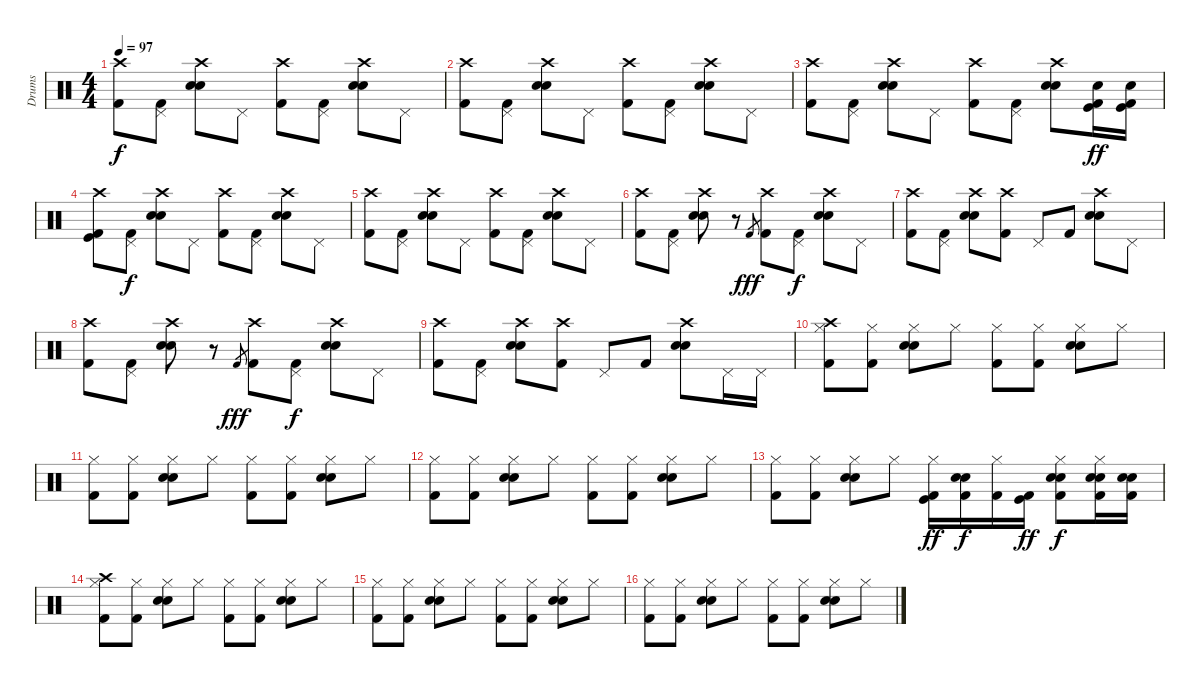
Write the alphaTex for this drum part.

\track ("Drums         Brian Young" "Drums     ") {instrument percussion}
\staff {score}
\articulation defaults
\ts (4 4)
\tempo 97
\clef neutral
\ks c
("Crash high (hit)" "Kick (hit) 2").8{dy f} ("Pedal Hi-Hat (hit)" "Kick (hit) 2").8 ("Crash high (hit)" "Electric Snare (hit)" "Snare (hit) 2").8 "Pedal Hi-Hat (hit)".8 ("Crash high (hit)" "Kick (hit) 2").8 ("Pedal Hi-Hat (hit)" "Kick (hit) 2").8 ("Crash high (hit)" "Electric Snare (hit)" "Snare (hit) 2").8 "Pedal Hi-Hat (hit)".8 |
("Crash high (hit)" "Kick (hit) 2").8 ("Pedal Hi-Hat (hit)" "Kick (hit) 2").8 ("Crash high (hit)" "Electric Snare (hit)" "Snare (hit) 2").8 "Pedal Hi-Hat (hit)".8 ("Crash high (hit)" "Kick (hit) 2").8 ("Pedal Hi-Hat (hit)" "Kick (hit) 2").8 ("Crash high (hit)" "Electric Snare (hit)" "Snare (hit) 2").8 "Pedal Hi-Hat (hit)".8 |
("Crash high (hit)" "Kick (hit) 2").8 ("Pedal Hi-Hat (hit)" "Kick (hit) 2").8 ("Crash high (hit)" "Electric Snare (hit)" "Snare (hit) 2").8 "Pedal Hi-Hat (hit)".8 ("Crash high (hit)" "Kick (hit) 2").8 ("Pedal Hi-Hat (hit)" "Kick (hit) 2").8 ("Crash high (hit)" "Electric Snare (hit)" "Snare (hit) 2").8 ("Snare (hit) 2" "Kick (hit)" "Kick (hit) 2").16{dy ff} ("Snare (hit) 2" "Kick (hit)" "Kick (hit) 2").16 |
("Crash high (hit)" "Kick (hit)" "Kick (hit) 2").8 ("Pedal Hi-Hat (hit)" "Kick (hit) 2").8{dy f} ("Crash high (hit)" "Electric Snare (hit)" "Snare (hit) 2").8 "Pedal Hi-Hat (hit)".8 ("Crash high (hit)" "Kick (hit) 2").8 ("Pedal Hi-Hat (hit)" "Kick (hit) 2").8 ("Crash high (hit)" "Electric Snare (hit)" "Snare (hit) 2").8 "Pedal Hi-Hat (hit)".8 |
("Crash high (hit)" "Kick (hit) 2").8 ("Pedal Hi-Hat (hit)" "Kick (hit) 2").8 ("Crash high (hit)" "Electric Snare (hit)" "Snare (hit) 2").8 "Pedal Hi-Hat (hit)".8 ("Crash high (hit)" "Kick (hit) 2").8 ("Pedal Hi-Hat (hit)" "Kick (hit) 2").8 ("Crash high (hit)" "Electric Snare (hit)" "Snare (hit) 2").8 "Pedal Hi-Hat (hit)".8 |
("Crash high (hit)" "Kick (hit) 2").8 ("Pedal Hi-Hat (hit)" "Kick (hit) 2").8 ("Crash high (hit)" "Electric Snare (hit)" "Snare (hit) 2").8 r.8 "Kick (hit) 2".8{gr dy fff} ("Crash high (hit)" "Kick (hit) 2").8 ("Pedal Hi-Hat (hit)" "Kick (hit) 2").8{dy f} ("Crash high (hit)" "Electric Snare (hit)" "Snare (hit) 2").8 "Pedal Hi-Hat (hit)".8 |
("Crash high (hit)" "Kick (hit) 2").8 ("Pedal Hi-Hat (hit)" "Kick (hit) 2").8 ("Crash high (hit)" "Electric Snare (hit)" "Snare (hit) 2").8 ("Crash high (hit)" "Kick (hit) 2").8 "Pedal Hi-Hat (hit)".8 "Kick (hit) 2".8 ("Crash high (hit)" "Electric Snare (hit)" "Snare (hit) 2").8 "Pedal Hi-Hat (hit)".8 |
("Crash high (hit)" "Kick (hit) 2").8 ("Pedal Hi-Hat (hit)" "Kick (hit) 2").8 ("Crash high (hit)" "Electric Snare (hit)" "Snare (hit) 2").8 r.8 "Kick (hit) 2".8{gr dy fff} ("Crash high (hit)" "Kick (hit) 2").8 ("Pedal Hi-Hat (hit)" "Kick (hit) 2").8{dy f} ("Crash high (hit)" "Electric Snare (hit)" "Snare (hit) 2").8 "Pedal Hi-Hat (hit)".8 |
("Crash high (hit)" "Kick (hit) 2").8 ("Pedal Hi-Hat (hit)" "Kick (hit) 2").8 ("Crash high (hit)" "Electric Snare (hit)" "Snare (hit) 2").8 ("Crash high (hit)" "Kick (hit) 2").8 "Pedal Hi-Hat (hit)".8 "Kick (hit) 2".8 ("Crash high (hit)" "Electric Snare (hit)" "Snare (hit) 2").8 "Pedal Hi-Hat (hit)".16 "Pedal Hi-Hat (hit)".16 |
("Hi-Hat (closed)" "Crash high (hit)" "Kick (hit) 2").8 ("Hi-Hat (closed)" "Kick (hit) 2").8 ("Hi-Hat (closed)" "Electric Snare (hit)" "Snare (hit) 2").8 "Hi-Hat (closed)".8 ("Hi-Hat (closed)" "Kick (hit) 2").8 ("Hi-Hat (closed)" "Kick (hit) 2").8 ("Hi-Hat (closed)" "Electric Snare (hit)" "Snare (hit) 2").8 "Hi-Hat (closed)".8 |
("Hi-Hat (closed)" "Kick (hit) 2").8 ("Hi-Hat (closed)" "Kick (hit) 2").8 ("Hi-Hat (closed)" "Electric Snare (hit)" "Snare (hit) 2").8 "Hi-Hat (closed)".8 ("Hi-Hat (closed)" "Kick (hit) 2").8 ("Hi-Hat (closed)" "Kick (hit) 2").8 ("Hi-Hat (closed)" "Electric Snare (hit)" "Snare (hit) 2").8 "Hi-Hat (closed)".8 |
("Hi-Hat (closed)" "Kick (hit) 2").8 ("Hi-Hat (closed)" "Kick (hit) 2").8 ("Hi-Hat (closed)" "Electric Snare (hit)" "Snare (hit) 2").8 "Hi-Hat (closed)".8 ("Hi-Hat (closed)" "Kick (hit) 2").8 ("Hi-Hat (closed)" "Kick (hit) 2").8 ("Hi-Hat (closed)" "Electric Snare (hit)" "Snare (hit) 2").8 "Hi-Hat (closed)".8 |
("Hi-Hat (closed)" "Kick (hit) 2").8 ("Hi-Hat (closed)" "Kick (hit) 2").8 ("Hi-Hat (closed)" "Electric Snare (hit)" "Snare (hit) 2").8 "Hi-Hat (closed)".8 ("Hi-Hat (closed)" "Kick (hit)" "Kick (hit) 2").16{dy ff} ("Electric Snare (hit)" "Snare (hit) 2" "Kick (hit) 2").16{dy f} ("Hi-Hat (closed)" "Kick (hit) 2").16 ("Kick (hit)" "Kick (hit) 2").16{dy ff} ("Hi-Hat (closed)" "Electric Snare (hit)" "Snare (hit) 2" "Kick (hit) 2").8{dy f} ("Hi-Hat (closed)" "Electric Snare (hit)" "Snare (hit) 2" "Kick (hit) 2").16 ("Electric Snare (hit)" "Snare (hit) 2" "Kick (hit) 2").16 |
("Hi-Hat (closed)" "Crash high (hit)" "Kick (hit) 2").8 ("Hi-Hat (closed)" "Kick (hit) 2").8 ("Hi-Hat (closed)" "Electric Snare (hit)" "Snare (hit) 2").8 "Hi-Hat (closed)".8 ("Hi-Hat (closed)" "Kick (hit) 2").8 ("Hi-Hat (closed)" "Kick (hit) 2").8 ("Hi-Hat (closed)" "Electric Snare (hit)" "Snare (hit) 2").8 "Hi-Hat (closed)".8 |
("Hi-Hat (closed)" "Kick (hit) 2").8 ("Hi-Hat (closed)" "Kick (hit) 2").8 ("Hi-Hat (closed)" "Electric Snare (hit)" "Snare (hit) 2").8 "Hi-Hat (closed)".8 ("Hi-Hat (closed)" "Kick (hit) 2").8 ("Hi-Hat (closed)" "Kick (hit) 2").8 ("Hi-Hat (closed)" "Electric Snare (hit)" "Snare (hit) 2").8 "Hi-Hat (closed)".8 |
("Hi-Hat (closed)" "Kick (hit) 2").8 ("Hi-Hat (closed)" "Kick (hit) 2").8 ("Hi-Hat (closed)" "Electric Snare (hit)" "Snare (hit) 2").8 "Hi-Hat (closed)".8 ("Hi-Hat (closed)" "Kick (hit) 2").8 ("Hi-Hat (closed)" "Kick (hit) 2").8 ("Hi-Hat (closed)" "Electric Snare (hit)" "Snare (hit) 2").8 "Hi-Hat (closed)".8
